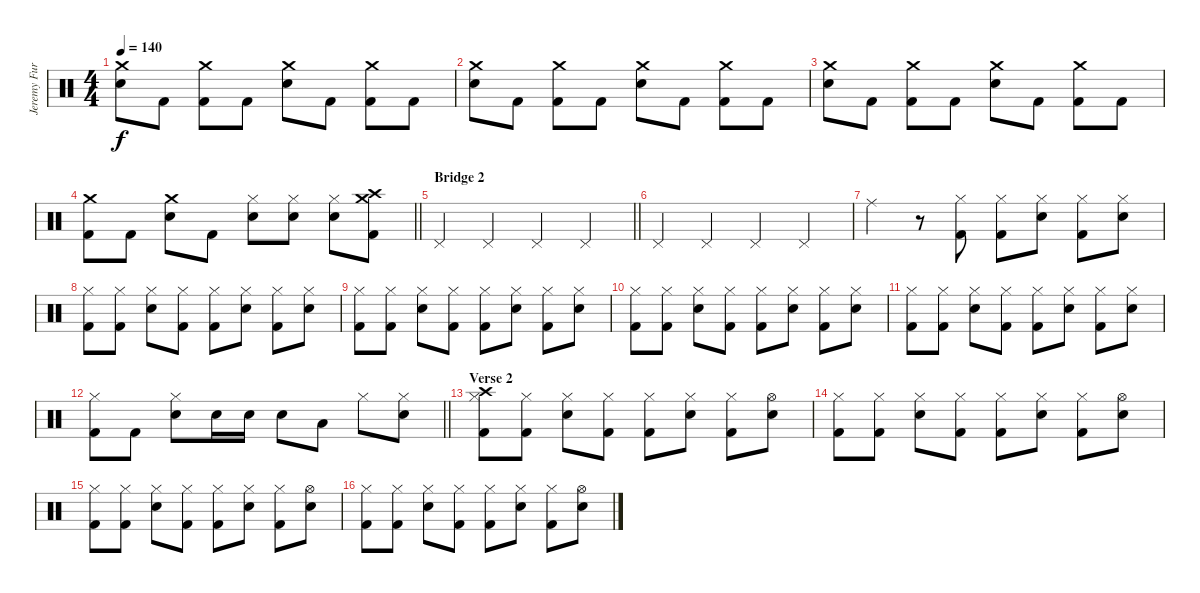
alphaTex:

\track ("Jeremy Furstenfeld" "Jeremy Fur") {instrument percussion}
\staff {score}
\articulation defaults
\ts (4 4)
\tempo 140
\clef neutral
\ks c
("Crash medium (hit)" "Snare (hit) 2").8{dy f} "Kick (hit) 2".8 ("Crash medium (hit)" "Kick (hit) 2").8 "Kick (hit) 2".8 ("Crash medium (hit)" "Snare (hit) 2").8 "Kick (hit) 2".8 ("Crash medium (hit)" "Kick (hit) 2").8 "Kick (hit) 2".8 |
("Crash medium (hit)" "Snare (hit) 2").8 "Kick (hit) 2".8 ("Crash medium (hit)" "Kick (hit) 2").8 "Kick (hit) 2".8 ("Crash medium (hit)" "Snare (hit) 2").8 "Kick (hit) 2".8 ("Crash medium (hit)" "Kick (hit) 2").8 "Kick (hit) 2".8 |
("Crash medium (hit)" "Snare (hit) 2").8 "Kick (hit) 2".8 ("Crash medium (hit)" "Kick (hit) 2").8 "Kick (hit) 2".8 ("Crash medium (hit)" "Snare (hit) 2").8 "Kick (hit) 2".8 ("Crash medium (hit)" "Kick (hit) 2").8 "Kick (hit) 2".8 |
\barLineRight lightlight
("Crash medium (hit)" "Kick (hit) 2").8 "Kick (hit) 2".8 ("Crash medium (hit)" "Snare (hit) 2").8 "Kick (hit) 2".8 ("Hi-Hat (closed)" "Snare (hit) 2").8 ("Hi-Hat (closed)" "Snare (hit) 2").8 ("Hi-Hat (closed)" "Snare (hit) 2").8 ("Crash medium (hit)" "Crash high (hit)" "Kick (hit) 2").8 |
\section ("" "Bridge 2")
\barLineRight lightlight "Pedal Hi-Hat (hit)".4 "Pedal Hi-Hat (hit)".4 "Pedal Hi-Hat (hit)".4 "Pedal Hi-Hat (hit)".4
|
"Pedal Hi-Hat (hit)".4 "Pedal Hi-Hat (hit)".4 "Pedal Hi-Hat (hit)".4 "Pedal Hi-Hat (hit)".4 |
"Ride (middle)".4 r.8 ("Hi-Hat (closed)" "Kick (hit) 2").8 ("Hi-Hat (closed)" "Kick (hit) 2").8 ("Hi-Hat (closed)" "Snare (hit) 2").8 ("Hi-Hat (closed)" "Kick (hit) 2").8 ("Hi-Hat (closed)" "Snare (hit) 2").8 |
("Hi-Hat (closed)" "Kick (hit) 2").8 ("Hi-Hat (closed)" "Kick (hit) 2").8 ("Hi-Hat (closed)" "Snare (hit) 2").8 ("Hi-Hat (closed)" "Kick (hit) 2").8 ("Hi-Hat (closed)" "Kick (hit) 2").8 ("Hi-Hat (closed)" "Snare (hit) 2").8 ("Hi-Hat (closed)" "Kick (hit) 2").8 ("Hi-Hat (closed)" "Snare (hit) 2").8 |
("Hi-Hat (closed)" "Kick (hit) 2").8 ("Hi-Hat (closed)" "Kick (hit) 2").8 ("Hi-Hat (closed)" "Snare (hit) 2").8 ("Hi-Hat (closed)" "Kick (hit) 2").8 ("Hi-Hat (closed)" "Kick (hit) 2").8 ("Hi-Hat (closed)" "Snare (hit) 2").8 ("Hi-Hat (closed)" "Kick (hit) 2").8 ("Hi-Hat (closed)" "Snare (hit) 2").8 |
("Hi-Hat (closed)" "Kick (hit) 2").8 ("Hi-Hat (closed)" "Kick (hit) 2").8 ("Hi-Hat (closed)" "Snare (hit) 2").8 ("Hi-Hat (closed)" "Kick (hit) 2").8 ("Hi-Hat (closed)" "Kick (hit) 2").8 ("Hi-Hat (closed)" "Snare (hit) 2").8 ("Hi-Hat (closed)" "Kick (hit) 2").8 ("Hi-Hat (closed)" "Snare (hit) 2").8 |
("Hi-Hat (closed)" "Kick (hit) 2").8 ("Hi-Hat (closed)" "Kick (hit) 2").8 ("Hi-Hat (closed)" "Snare (hit) 2").8 ("Hi-Hat (closed)" "Kick (hit) 2").8 ("Hi-Hat (closed)" "Kick (hit) 2").8 ("Hi-Hat (closed)" "Snare (hit) 2").8 ("Hi-Hat (closed)" "Kick (hit) 2").8 ("Hi-Hat (closed)" "Snare (hit) 2").8 |
\barLineRight lightlight
("Hi-Hat (closed)" "Kick (hit) 2").8 "Kick (hit) 2".8 ("Hi-Hat (closed)" "Snare (hit) 2").8 "Snare (hit) 2".16 "Snare (hit) 2".16 "Snare (hit) 2".8 "Low Tom (hit)".8 "Hi-Hat (closed)".8 ("Hi-Hat (closed)" "Snare (hit) 2").8 |
\section ("" "Verse 2")
("Hi-Hat (closed)" "Crash high (hit)" "Kick (hit) 2").8 ("Hi-Hat (closed)" "Kick (hit) 2").8 ("Hi-Hat (closed)" "Snare (hit) 2").8 ("Hi-Hat (closed)" "Kick (hit) 2").8 ("Hi-Hat (closed)" "Kick (hit) 2").8 ("Hi-Hat (closed)" "Snare (hit) 2").8 ("Hi-Hat (closed)" "Kick (hit) 2").8 ("Hi-Hat (open)" "Snare (hit) 2").8 |
("Hi-Hat (closed)" "Kick (hit) 2").8 ("Hi-Hat (closed)" "Kick (hit) 2").8 ("Hi-Hat (closed)" "Snare (hit) 2").8 ("Hi-Hat (closed)" "Kick (hit) 2").8 ("Hi-Hat (closed)" "Kick (hit) 2").8 ("Hi-Hat (closed)" "Snare (hit) 2").8 ("Hi-Hat (closed)" "Kick (hit) 2").8 ("Hi-Hat (open)" "Snare (hit) 2").8 |
("Hi-Hat (closed)" "Kick (hit) 2").8 ("Hi-Hat (closed)" "Kick (hit) 2").8 ("Hi-Hat (closed)" "Snare (hit) 2").8 ("Hi-Hat (closed)" "Kick (hit) 2").8 ("Hi-Hat (closed)" "Kick (hit) 2").8 ("Hi-Hat (closed)" "Snare (hit) 2").8 ("Hi-Hat (closed)" "Kick (hit) 2").8 ("Hi-Hat (open)" "Snare (hit) 2").8 |
("Hi-Hat (closed)" "Kick (hit) 2").8 ("Hi-Hat (closed)" "Kick (hit) 2").8 ("Hi-Hat (closed)" "Snare (hit) 2").8 ("Hi-Hat (closed)" "Kick (hit) 2").8 ("Hi-Hat (closed)" "Kick (hit) 2").8 ("Hi-Hat (closed)" "Snare (hit) 2").8 ("Hi-Hat (closed)" "Kick (hit) 2").8 ("Hi-Hat (open)" "Snare (hit) 2").8
